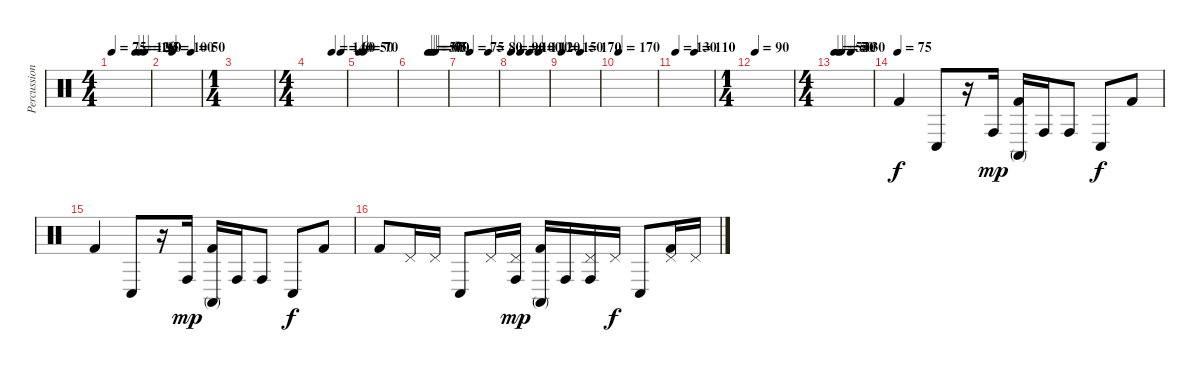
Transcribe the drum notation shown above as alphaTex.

\track ("Percussion" "Percussion") {instrument percussion}
\staff {score}
\articulation defaults
\ts (4 4)
\tempo 75
\tempo (120 0.625)
\tempo (160 0.75)
\tempo (95 0.875)
\tempo 75
\clef neutral
\ks c
|
\tempo (100 0.25)
\tempo (50 0.75)
|
\ts (1 4)
|
\ts (4 4)
\tempo (140 0.625)
\tempo (60 0.875)
|
\tempo 50
\tempo (70 0.125)
|
\tempo (50 0.5)
\tempo (60 0.5625)
\tempo (65 0.625)
\tempo (70 0.6875)
|
\tempo (75 0.25)
\tempo (80 0.75)
|
\tempo 90
\tempo (100 0.25)
\tempo (110 0.5)
\tempo (120 0.75)
|
\tempo 150
\tempo (170 0.5)
|
\tempo 170
|
\tempo 130
\tempo (110 0.5)
|
\ts (1 4)
\tempo 90
|
\ts (4 4)
\tempo 55
\tempo (50 0.125)
\tempo (40 0.1875)
\tempo (30 0.4375)
|
\tempo (75)
"Kick (hit) 2".4 "Conga low (hit)".8 r.16 "Conga high (hit)".16{dy mp} ("Conga high (mute)" "Kick (hit) 2").16 "Conga high (hit)".16 "Conga high (hit)".8 "Conga low (hit)".8{dy f} "Kick (hit) 2".8 |
"Kick (hit) 2".4 "Conga low (hit)".8 r.16 "Conga high (hit)".16{dy mp} ("Conga high (mute)" "Kick (hit) 2").16 "Conga high (hit)".16 "Conga high (hit)".8 "Conga low (hit)".8{dy f} "Kick (hit) 2".8 |
"Kick (hit) 2".8 "Pedal Hi-Hat (hit)".16 "Pedal Hi-Hat (hit)".16 "Conga low (hit)".8 "Pedal Hi-Hat (hit)".16 ("Pedal Hi-Hat (hit)" "Conga high (hit)").16{dy mp} ("Conga high (mute)" "Kick (hit) 2").16 "Conga high (hit)".16 ("Pedal Hi-Hat (hit)" "Conga high (hit)").16 "Pedal Hi-Hat (hit)".16{dy f} "Conga low (hit)".8 ("Pedal Hi-Hat (hit)" "Kick (hit) 2").16 "Pedal Hi-Hat (hit)".16
